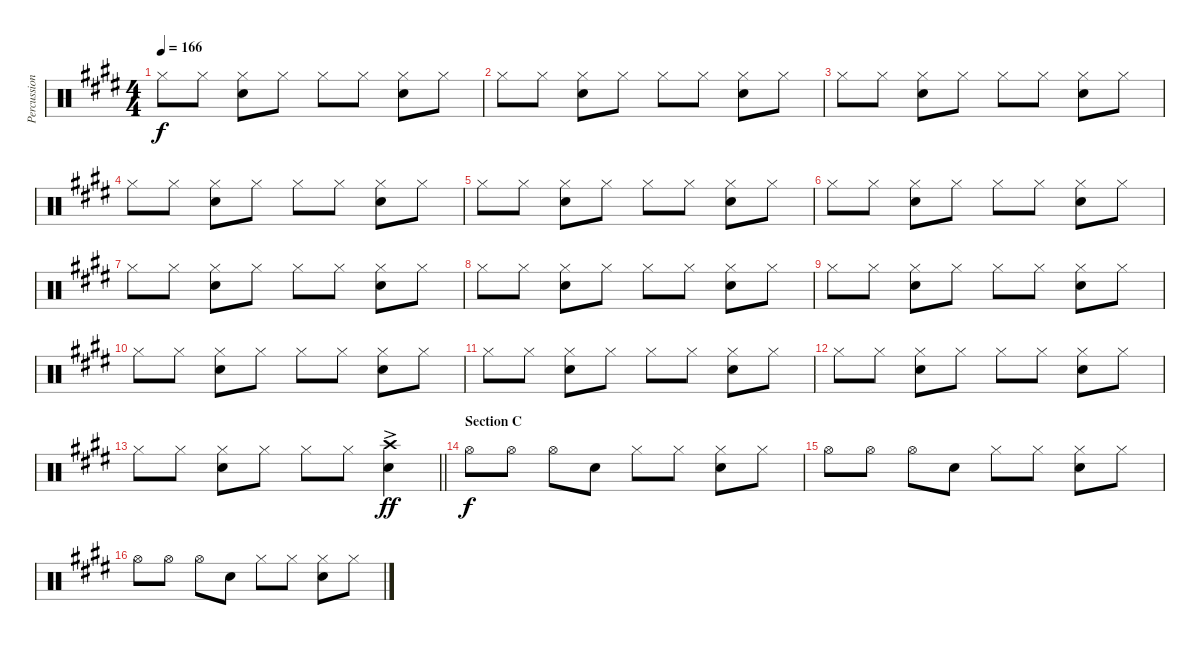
\track ("Percussion - Other" "Percussion") {instrument percussion}
\staff {score}
\articulation defaults
\ts (4 4)
\tempo 166
\clef neutral
\ks e "Hi-Hat (closed)".8{dy f} "Hi-Hat (closed)".8
("Hi-Hat (closed)" "Snare (hit) 2").8 "Hi-Hat (closed)".8 "Hi-Hat (closed)".8 "Hi-Hat (closed)".8 ("Hi-Hat (closed)" "Snare (hit) 2").8 "Hi-Hat (closed)".8 |
"Hi-Hat (closed)".8 "Hi-Hat (closed)".8 ("Hi-Hat (closed)" "Snare (hit) 2").8 "Hi-Hat (closed)".8 "Hi-Hat (closed)".8 "Hi-Hat (closed)".8 ("Hi-Hat (closed)" "Snare (hit) 2").8 "Hi-Hat (closed)".8 |
"Hi-Hat (closed)".8 "Hi-Hat (closed)".8 ("Hi-Hat (closed)" "Snare (hit) 2").8 "Hi-Hat (closed)".8 "Hi-Hat (closed)".8 "Hi-Hat (closed)".8 ("Hi-Hat (closed)" "Snare (hit) 2").8 "Hi-Hat (closed)".8 |
"Hi-Hat (closed)".8 "Hi-Hat (closed)".8 ("Hi-Hat (closed)" "Snare (hit) 2").8 "Hi-Hat (closed)".8 "Hi-Hat (closed)".8 "Hi-Hat (closed)".8 ("Hi-Hat (closed)" "Snare (hit) 2").8 "Hi-Hat (closed)".8 |
"Hi-Hat (closed)".8 "Hi-Hat (closed)".8 ("Hi-Hat (closed)" "Snare (hit) 2").8 "Hi-Hat (closed)".8 "Hi-Hat (closed)".8 "Hi-Hat (closed)".8 ("Hi-Hat (closed)" "Snare (hit) 2").8 "Hi-Hat (closed)".8 |
"Hi-Hat (closed)".8 "Hi-Hat (closed)".8 ("Hi-Hat (closed)" "Snare (hit) 2").8 "Hi-Hat (closed)".8 "Hi-Hat (closed)".8 "Hi-Hat (closed)".8 ("Hi-Hat (closed)" "Snare (hit) 2").8 "Hi-Hat (closed)".8 |
"Hi-Hat (closed)".8 "Hi-Hat (closed)".8 ("Hi-Hat (closed)" "Snare (hit) 2").8 "Hi-Hat (closed)".8 "Hi-Hat (closed)".8 "Hi-Hat (closed)".8 ("Hi-Hat (closed)" "Snare (hit) 2").8 "Hi-Hat (closed)".8 |
"Hi-Hat (closed)".8 "Hi-Hat (closed)".8 ("Hi-Hat (closed)" "Snare (hit) 2").8 "Hi-Hat (closed)".8 "Hi-Hat (closed)".8 "Hi-Hat (closed)".8 ("Hi-Hat (closed)" "Snare (hit) 2").8 "Hi-Hat (closed)".8 |
"Hi-Hat (closed)".8 "Hi-Hat (closed)".8 ("Hi-Hat (closed)" "Snare (hit) 2").8 "Hi-Hat (closed)".8 "Hi-Hat (closed)".8 "Hi-Hat (closed)".8 ("Hi-Hat (closed)" "Snare (hit) 2").8 "Hi-Hat (closed)".8 |
"Hi-Hat (closed)".8 "Hi-Hat (closed)".8 ("Hi-Hat (closed)" "Snare (hit) 2").8 "Hi-Hat (closed)".8 "Hi-Hat (closed)".8 "Hi-Hat (closed)".8 ("Hi-Hat (closed)" "Snare (hit) 2").8 "Hi-Hat (closed)".8 |
"Hi-Hat (closed)".8 "Hi-Hat (closed)".8 ("Hi-Hat (closed)" "Snare (hit) 2").8 "Hi-Hat (closed)".8 "Hi-Hat (closed)".8 "Hi-Hat (closed)".8 ("Hi-Hat (closed)" "Snare (hit) 2").8 "Hi-Hat (closed)".8 |
"Hi-Hat (closed)".8 "Hi-Hat (closed)".8 ("Hi-Hat (closed)" "Snare (hit) 2").8 "Hi-Hat (closed)".8 "Hi-Hat (closed)".8 "Hi-Hat (closed)".8 ("Hi-Hat (closed)" "Snare (hit) 2").8 "Hi-Hat (closed)".8 |
\barLineRight lightlight "Hi-Hat (closed)".8 "Hi-Hat (closed)".8
("Hi-Hat (closed)" "Snare (hit) 2").8 "Hi-Hat (closed)".8 "Hi-Hat (closed)".8 "Hi-Hat (closed)".8 ("Crash high (hit)"{ac} "Snare (hit) 2").4{dy ff} |
\section ("" "Section C")
"Hi-Hat (open)".8{dy f} "Hi-Hat (open)".8 "Hi-Hat (open)".8 "Snare (hit) 2".8 "Hi-Hat (closed)".8 "Hi-Hat (closed)".8 ("Hi-Hat (closed)" "Snare (hit) 2").8 "Hi-Hat (closed)".8 |
"Hi-Hat (open)".8 "Hi-Hat (open)".8 "Hi-Hat (open)".8 "Snare (hit) 2".8 "Hi-Hat (closed)".8 "Hi-Hat (closed)".8 ("Hi-Hat (closed)" "Snare (hit) 2").8 "Hi-Hat (closed)".8 |
"Hi-Hat (open)".8 "Hi-Hat (open)".8 "Hi-Hat (open)".8 "Snare (hit) 2".8 "Hi-Hat (closed)".8 "Hi-Hat (closed)".8 ("Hi-Hat (closed)" "Snare (hit) 2").8 "Hi-Hat (closed)".8
